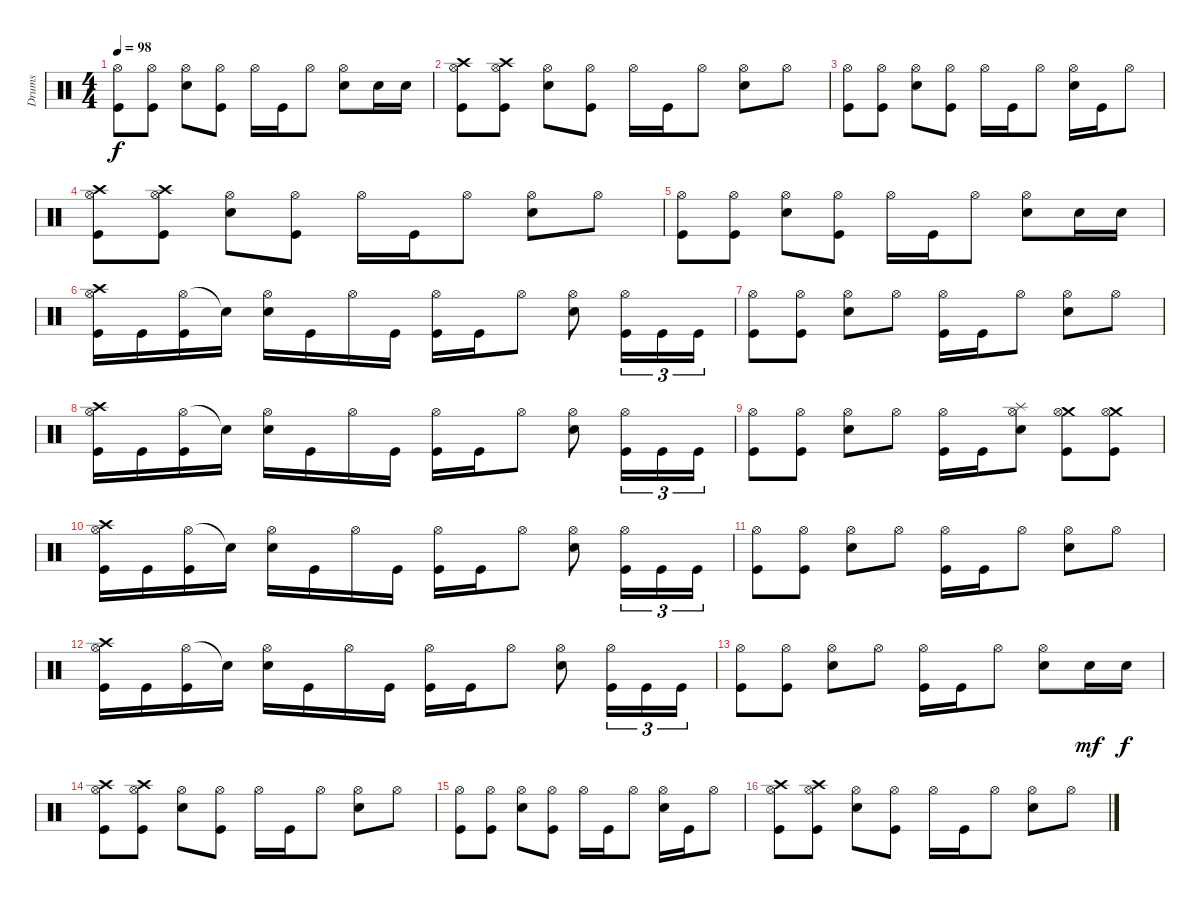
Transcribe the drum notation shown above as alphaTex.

\track ("Drums" "Drums") {instrument percussion}
\staff {score}
\articulation defaults
\ts (4 4)
\tempo 98
\clef neutral
\ks aminor
("Hi-Hat (open)" "Kick (hit)").8{dy f} ("Hi-Hat (open)" "Kick (hit)").8 ("Hi-Hat (open)" "Electric Snare (hit)").8 ("Hi-Hat (open)" "Kick (hit)").8 "Hi-Hat (open)".16 "Kick (hit)".16 "Hi-Hat (open)".8 ("Hi-Hat (open)" "Electric Snare (hit)").8 "Electric Snare (hit)".16 "Electric Snare (hit)".16 |
("Crash high (hit)" "Hi-Hat (open)" "Kick (hit)").8 ("Crash high (hit)" "Hi-Hat (open)" "Kick (hit)").8 ("Hi-Hat (open)" "Electric Snare (hit)").8 ("Hi-Hat (open)" "Kick (hit)").8 "Hi-Hat (open)".16 "Kick (hit)".16 "Hi-Hat (open)".8 ("Hi-Hat (open)" "Electric Snare (hit)").8 "Hi-Hat (open)".8 |
("Hi-Hat (open)" "Kick (hit)").8 ("Hi-Hat (open)" "Kick (hit)").8 ("Hi-Hat (open)" "Electric Snare (hit)").8 ("Hi-Hat (open)" "Kick (hit)").8 "Hi-Hat (open)".16 "Kick (hit)".16 "Hi-Hat (open)".8 ("Hi-Hat (open)" "Electric Snare (hit)").16 "Kick (hit)".16 "Hi-Hat (open)".8 |
("Crash high (hit)" "Hi-Hat (open)" "Kick (hit)").8 ("Crash high (hit)" "Hi-Hat (open)" "Kick (hit)").8 ("Hi-Hat (open)" "Electric Snare (hit)").8 ("Hi-Hat (open)" "Kick (hit)").8 "Hi-Hat (open)".16 "Kick (hit)".16 "Hi-Hat (open)".8 ("Hi-Hat (open)" "Electric Snare (hit)").8 "Hi-Hat (open)".8 |
("Hi-Hat (open)" "Kick (hit)").8 ("Hi-Hat (open)" "Kick (hit)").8 ("Hi-Hat (open)" "Electric Snare (hit)").8 ("Hi-Hat (open)" "Kick (hit)").8 "Hi-Hat (open)".16 "Kick (hit)".16 "Hi-Hat (open)".8 ("Hi-Hat (open)" "Electric Snare (hit)").8 "Electric Snare (hit)".16 "Electric Snare (hit)".16 |
("Crash high (hit)" "Hi-Hat (open)" "Kick (hit)").16 "Kick (hit)".16 ("Hi-Hat (open)" "Kick (hit)").16 "Snare (hit)"{t}.16 ("Hi-Hat (open)" "Electric Snare (hit)").16 "Kick (hit)".16 "Hi-Hat (open)".16 "Kick (hit)".16 ("Hi-Hat (open)" "Kick (hit)").16 "Kick (hit)".16 "Hi-Hat (open)".8 ("Hi-Hat (open)" "Electric Snare (hit)").8 ("Hi-Hat (open)" "Kick (hit)").16{tu (3 2)} "Kick (hit)".16{tu (3 2)} "Kick (hit)".16{tu (3 2)} |
("Hi-Hat (open)" "Kick (hit)").8 ("Hi-Hat (open)" "Kick (hit)").8 ("Hi-Hat (open)" "Electric Snare (hit)").8 "Hi-Hat (open)".8 ("Hi-Hat (open)" "Kick (hit)").16 "Kick (hit)".16 "Hi-Hat (open)".8 ("Hi-Hat (open)" "Electric Snare (hit)").8 "Hi-Hat (open)".8 |
("Crash high (hit)" "Hi-Hat (open)" "Kick (hit)").16 "Kick (hit)".16 ("Hi-Hat (open)" "Kick (hit)").16 "Snare (hit)"{t}.16 ("Hi-Hat (open)" "Electric Snare (hit)").16 "Kick (hit)".16 "Hi-Hat (open)".16 "Kick (hit)".16 ("Hi-Hat (open)" "Kick (hit)").16 "Kick (hit)".16 "Hi-Hat (open)".8 ("Hi-Hat (open)" "Electric Snare (hit)").8 ("Hi-Hat (open)" "Kick (hit)").16{tu (3 2)} "Kick (hit)".16{tu (3 2)} "Kick (hit)".16{tu (3 2)} |
("Hi-Hat (open)" "Kick (hit)").8 ("Hi-Hat (open)" "Kick (hit)").8 ("Hi-Hat (open)" "Electric Snare (hit)").8 "Hi-Hat (open)".8 ("Hi-Hat (open)" "Kick (hit)").16 "Kick (hit)".16 ("Splash (hit)" "Hi-Hat (open)" "Electric Snare (hit)").8 ("Crash medium (hit)" "Hi-Hat (open)" "Kick (hit)").8 ("Crash medium (hit)" "Hi-Hat (open)" "Kick (hit)").8 |
("Crash high (hit)" "Hi-Hat (open)" "Kick (hit)").16 "Kick (hit)".16 ("Hi-Hat (open)" "Kick (hit)").16 "Snare (hit)"{t}.16 ("Hi-Hat (open)" "Electric Snare (hit)").16 "Kick (hit)".16 "Hi-Hat (open)".16 "Kick (hit)".16 ("Hi-Hat (open)" "Kick (hit)").16 "Kick (hit)".16 "Hi-Hat (open)".8 ("Hi-Hat (open)" "Electric Snare (hit)").8 ("Hi-Hat (open)" "Kick (hit)").16{tu (3 2)} "Kick (hit)".16{tu (3 2)} "Kick (hit)".16{tu (3 2)} |
("Hi-Hat (open)" "Kick (hit)").8 ("Hi-Hat (open)" "Kick (hit)").8 ("Hi-Hat (open)" "Electric Snare (hit)").8 "Hi-Hat (open)".8 ("Hi-Hat (open)" "Kick (hit)").16 "Kick (hit)".16 "Hi-Hat (open)".8 ("Hi-Hat (open)" "Electric Snare (hit)").8 "Hi-Hat (open)".8 |
("Crash high (hit)" "Hi-Hat (open)" "Kick (hit)").16 "Kick (hit)".16 ("Hi-Hat (open)" "Kick (hit)").16 "Snare (hit)"{t}.16 ("Hi-Hat (open)" "Electric Snare (hit)").16 "Kick (hit)".16 "Hi-Hat (open)".16 "Kick (hit)".16 ("Hi-Hat (open)" "Kick (hit)").16 "Kick (hit)".16 "Hi-Hat (open)".8 ("Hi-Hat (open)" "Electric Snare (hit)").8 ("Hi-Hat (open)" "Kick (hit)").16{tu (3 2)} "Kick (hit)".16{tu (3 2)} "Kick (hit)".16{tu (3 2)} |
("Hi-Hat (open)" "Kick (hit)").8 ("Hi-Hat (open)" "Kick (hit)").8 ("Hi-Hat (open)" "Electric Snare (hit)").8 "Hi-Hat (open)".8 ("Hi-Hat (open)" "Kick (hit)").16 "Kick (hit)".16 "Hi-Hat (open)".8 ("Hi-Hat (open)" "Electric Snare (hit)").8 "Electric Snare (hit)".16{dy mf} "Electric Snare (hit)".16{dy f} |
("Crash high (hit)" "Hi-Hat (open)" "Kick (hit)").8 ("Crash high (hit)" "Hi-Hat (open)" "Kick (hit)").8 ("Hi-Hat (open)" "Electric Snare (hit)").8 ("Hi-Hat (open)" "Kick (hit)").8 "Hi-Hat (open)".16 "Kick (hit)".16 "Hi-Hat (open)".8 ("Hi-Hat (open)" "Electric Snare (hit)").8 "Hi-Hat (open)".8 |
("Hi-Hat (open)" "Kick (hit)").8 ("Hi-Hat (open)" "Kick (hit)").8 ("Hi-Hat (open)" "Electric Snare (hit)").8 ("Hi-Hat (open)" "Kick (hit)").8 "Hi-Hat (open)".16 "Kick (hit)".16 "Hi-Hat (open)".8 ("Hi-Hat (open)" "Electric Snare (hit)").16 "Kick (hit)".16 "Hi-Hat (open)".8 |
("Crash high (hit)" "Hi-Hat (open)" "Kick (hit)").8 ("Crash high (hit)" "Hi-Hat (open)" "Kick (hit)").8 ("Hi-Hat (open)" "Electric Snare (hit)").8 ("Hi-Hat (open)" "Kick (hit)").8 "Hi-Hat (open)".16 "Kick (hit)".16 "Hi-Hat (open)".8 ("Hi-Hat (open)" "Electric Snare (hit)").8 "Hi-Hat (open)".8
